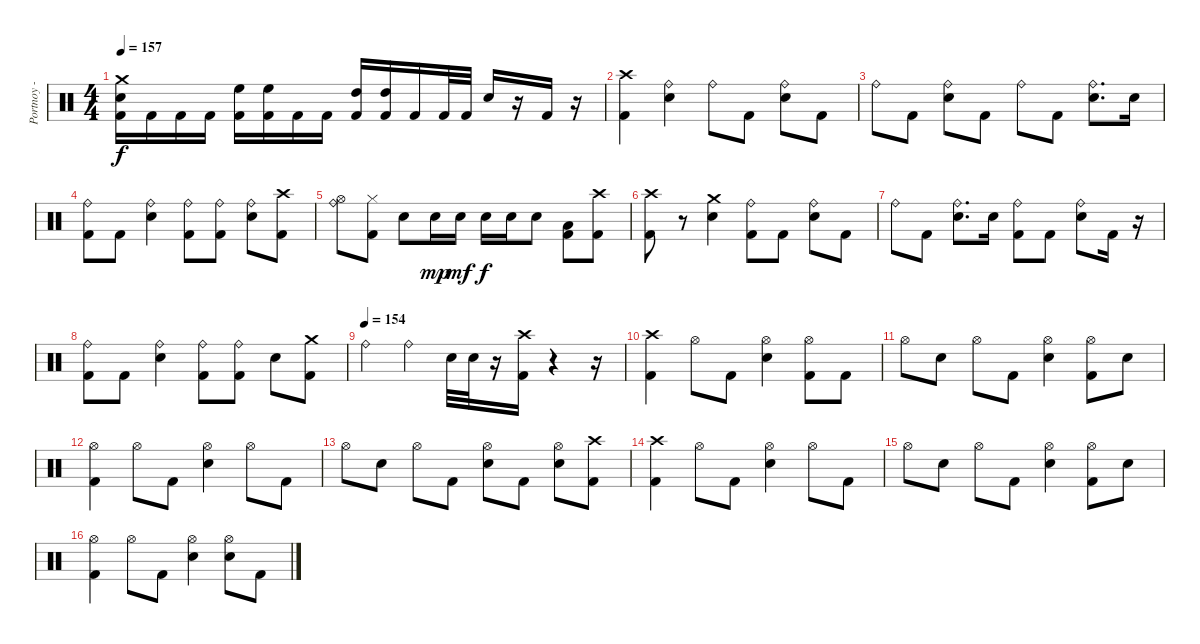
\track ("Portnoy - Drums" "Portnoy - ") {instrument percussion}
\staff {score}
\articulation defaults
\ts (4 4)
\tempo 157
\clef neutral
\ks c
("Kick (hit) 2" "Electric Snare (hit)" "Crash medium (hit)").16{dy f} "Kick (hit) 2".16 "Kick (hit) 2".16 "Kick (hit) 2".16 ("Kick (hit) 2" "High Floor Tom (hit)").16 ("Kick (hit) 2" "High Floor Tom (hit)").16 "Kick (hit) 2".16 "Kick (hit) 2".16 ("Kick (hit) 2" "High Tom (hit)").16 ("Kick (hit) 2" "High Tom (hit)").16 "Kick (hit) 2".16 "Kick (hit) 2".32 "Kick (hit) 2".32 "Electric Snare (hit)".16 r.16 "Kick (hit) 2".16 r.16 |
("Kick (hit) 2" "Crash high (hit)").4 ("Electric Snare (hit)" "Ride (bell)").4 "Ride (bell)".8 "Kick (hit) 2".8 ("Electric Snare (hit)" "Ride (bell)").8 "Kick (hit) 2".8 |
"Ride (bell)".8 "Kick (hit) 2".8 ("Electric Snare (hit)" "Ride (bell)").8 "Kick (hit) 2".8 "Ride (bell)".8 "Kick (hit) 2".8 ("Electric Snare (hit)" "Ride (bell)").8{d} "Electric Snare (hit)".16 |
("Kick (hit) 2" "Ride (bell)").8 "Kick (hit) 2".8 ("Electric Snare (hit)" "Ride (bell)").4 ("Kick (hit) 2" "Ride (bell)").8 ("Kick (hit) 2" "Ride (bell)").8 ("Ride (bell)" "Electric Snare (hit)").8 ("Crash high (hit)" "Kick (hit) 2").8 |
("Ride (bell)" "Hi-Hat (open)").8 ("Kick (hit) 2" "Hi-Hat (closed)").8 "Electric Snare (hit)".8 "Electric Snare (hit)".16{dy mp} "Electric Snare (hit)".16{dy mf} "Electric Snare (hit)".16{dy f} "Electric Snare (hit)".16 "Electric Snare (hit)".8 ("Kick (hit) 2" "Low Tom (hit)").8 ("Kick (hit) 2" "Crash high (hit)").8 |
("Kick (hit) 2" "Crash high (hit)").8 r.8 ("Electric Snare (hit)" "Crash medium (hit)").4 ("Ride (bell)" "Kick (hit) 2").8 "Kick (hit) 2".8 ("Electric Snare (hit)" "Ride (bell)").8 "Kick (hit) 2".8 |
"Ride (bell)".8 "Kick (hit) 2".8 ("Electric Snare (hit)" "Ride (bell)").8{d} "Electric Snare (hit)".16 ("Ride (bell)" "Kick (hit) 2").8 "Kick (hit) 2".8 ("Electric Snare (hit)" "Ride (bell)").8 "Kick (hit) 2".16 r.16 |
("Kick (hit) 2" "Ride (bell)").8 "Kick (hit) 2".8 ("Electric Snare (hit)" "Ride (bell)").4 ("Kick (hit) 2" "Ride (bell)").8 ("Kick (hit) 2" "Ride (bell)").8 "Electric Snare (hit)".8 ("Kick (hit) 2" "Crash medium (hit)").8 |
\tempo (154)
"Ride (bell)".4 "Ride (bell)".4 "Electric Snare (hit)".32 "Electric Snare (hit)".32 r.16 ("Kick (hit) 2" "Crash high (hit)").16 r.4 r.16 |
("Crash high (hit)" "Kick (hit) 2").4 "Hi-Hat (open)".8 "Kick (hit) 2".8 ("Hi-Hat (open)" "Electric Snare (hit)").4 ("Hi-Hat (open)" "Kick (hit) 2").8 "Kick (hit) 2".8 |
"Hi-Hat (open)".8 "Electric Snare (hit)".8 "Hi-Hat (open)".8 "Kick (hit) 2".8 ("Electric Snare (hit)" "Hi-Hat (open)").4 ("Hi-Hat (open)" "Kick (hit) 2").8 "Electric Snare (hit)".8 |
("Kick (hit) 2" "Hi-Hat (open)").4 "Hi-Hat (open)".8 "Kick (hit) 2".8 ("Hi-Hat (open)" "Electric Snare (hit)").4 "Hi-Hat (open)".8 "Kick (hit) 2".8 |
"Hi-Hat (open)".8 "Electric Snare (hit)".8 "Hi-Hat (open)".8 "Kick (hit) 2".8 ("Electric Snare (hit)" "Hi-Hat (open)").8 "Kick (hit) 2".8 ("Electric Snare (hit)" "Hi-Hat (open)").8 ("Kick (hit) 2" "Crash high (hit)").8 |
("Kick (hit) 2" "Crash high (hit)").4 "Hi-Hat (open)".8 "Kick (hit) 2".8 ("Electric Snare (hit)" "Hi-Hat (open)").4 "Hi-Hat (open)".8 "Kick (hit) 2".8 |
"Hi-Hat (open)".8 "Electric Snare (hit)".8 "Hi-Hat (open)".8 "Kick (hit) 2".8 ("Electric Snare (hit)" "Hi-Hat (open)").4 ("Kick (hit) 2" "Hi-Hat (open)").8 "Electric Snare (hit)".8 |
("Kick (hit) 2" "Hi-Hat (open)").4 "Hi-Hat (open)".8 "Kick (hit) 2".8 ("Electric Snare (hit)" "Hi-Hat (open)").4 ("Electric Snare (hit)" "Hi-Hat (open)").8 "Kick (hit) 2".8
